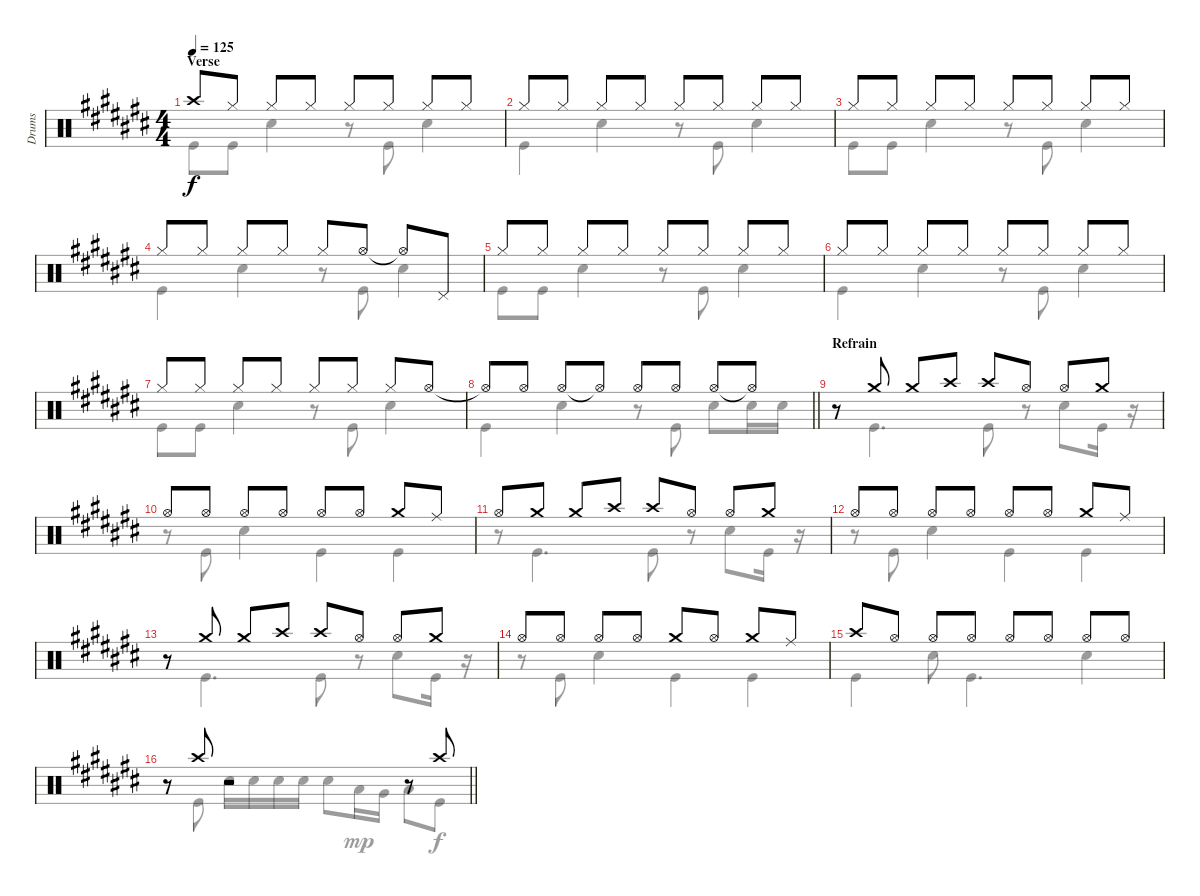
\track ("Drums" "Drums") {instrument percussion}
\staff {score}
\articulation defaults
\voice
\ts (4 4)
\section ("" "Verse")
\tempo 125
\clef neutral
\ks c# "Crash high (hit)".8{dy f} "Hi-Hat (closed)".8 "Hi-Hat (closed)".8 "Hi-Hat (closed)".8 "Hi-Hat (closed)".8 "Hi-Hat (closed)".8 "Hi-Hat (closed)".8 "Hi-Hat (closed)".8
|
"Hi-Hat (closed)".8 "Hi-Hat (closed)".8 "Hi-Hat (closed)".8 "Hi-Hat (closed)".8 "Hi-Hat (closed)".8 "Hi-Hat (closed)".8 "Hi-Hat (closed)".8 "Hi-Hat (closed)".8 |
"Hi-Hat (closed)".8 "Hi-Hat (closed)".8 "Hi-Hat (closed)".8 "Hi-Hat (closed)".8 "Hi-Hat (closed)".8 "Hi-Hat (closed)".8 "Hi-Hat (closed)".8 "Hi-Hat (closed)".8 |
"Hi-Hat (closed)".8 "Hi-Hat (closed)".8 "Hi-Hat (closed)".8 "Hi-Hat (closed)".8 "Hi-Hat (closed)".8 "Hi-Hat (open)".8 "Hi-Hat (open)"{t}.8 "Pedal Hi-Hat (hit)".8 |
"Hi-Hat (closed)".8 "Hi-Hat (closed)".8 "Hi-Hat (closed)".8 "Hi-Hat (closed)".8 "Hi-Hat (closed)".8 "Hi-Hat (closed)".8 "Hi-Hat (closed)".8 "Hi-Hat (closed)".8 |
"Hi-Hat (closed)".8 "Hi-Hat (closed)".8 "Hi-Hat (closed)".8 "Hi-Hat (closed)".8 "Hi-Hat (closed)".8 "Hi-Hat (closed)".8 "Hi-Hat (closed)".8 "Hi-Hat (closed)".8 |
"Hi-Hat (closed)".8 "Hi-Hat (closed)".8 "Hi-Hat (closed)".8 "Hi-Hat (closed)".8 "Hi-Hat (closed)".8 "Hi-Hat (closed)".8 "Hi-Hat (closed)".8 "Hi-Hat (open)".8 |
\barLineRight lightlight "Hi-Hat (open)"{t}.8 "Hi-Hat (open)".8 "Hi-Hat (open)".8 "Hi-Hat (open)"{t}.8 "Hi-Hat (open)".8 "Hi-Hat (open)".8 "Hi-Hat (open)".8 "Hi-Hat (open)"{t}.8
|
\section ("" "Refrain")
r.8 "Crash medium (hit)".8 "Crash medium (hit)".8 "Crash high (hit)".8 "Crash high (hit)".8 "Hi-Hat (open)".8 "Hi-Hat (open)".8 "Crash medium (hit)".8 |
"Hi-Hat (open)".8 "Hi-Hat (open)".8 "Hi-Hat (open)".8 "Hi-Hat (open)".8 "Hi-Hat (open)".8 "Hi-Hat (open)".8 "Crash medium (hit)".8 "Ride (middle)".8 |
"Hi-Hat (open)".8 "Crash medium (hit)".8 "Crash medium (hit)".8 "Crash high (hit)".8 "Crash high (hit)".8 "Hi-Hat (open)".8 "Hi-Hat (open)".8 "Crash medium (hit)".8 |
"Hi-Hat (open)".8 "Hi-Hat (open)".8 "Hi-Hat (open)".8 "Hi-Hat (open)".8 "Hi-Hat (open)".8 "Hi-Hat (open)".8 "Crash medium (hit)".8 "Ride (middle)".8 |
r.8 "Crash medium (hit)".8 "Crash medium (hit)".8 "Crash high (hit)".8 "Crash high (hit)".8 "Hi-Hat (open)".8 "Hi-Hat (open)".8 "Crash medium (hit)".8 |
"Hi-Hat (open)".8 "Hi-Hat (open)".8 "Hi-Hat (open)".8 "Hi-Hat (open)".8 "Crash medium (hit)".8 "Hi-Hat (open)".8 "Crash medium (hit)".8 "Ride (middle)".8 |
"Crash high (hit)".8 "Hi-Hat (open)".8 "Hi-Hat (open)".8 "Hi-Hat (open)".8 "Hi-Hat (open)".8 "Hi-Hat (open)".8 "Hi-Hat (open)".8 "Hi-Hat (open)".8 |
\barLineRight lightlight
r.8 "Crash high (hit)".8 r.2 r.8 "Crash high (hit)".8
\voice
\clef neutral
\ottava regular
\simile none
\ks c# "Kick (hit)".8{dy f} "Kick (hit)".8 "Snare (hit) 2".4
r.8 "Kick (hit)".8 "Snare (hit) 2".4 |
"Kick (hit)".4 "Snare (hit) 2".4 r.8 "Kick (hit)".8 "Snare (hit) 2".4 |
"Kick (hit)".8 "Kick (hit)".8 "Snare (hit) 2".4 r.8 "Kick (hit)".8 "Snare (hit) 2".4 |
"Kick (hit)".4 "Snare (hit) 2".4 r.8 "Kick (hit)".8 "Snare (hit) 2".4 |
"Kick (hit)".8 "Kick (hit)".8 "Snare (hit) 2".4 r.8 "Kick (hit)".8 "Snare (hit) 2".4 |
"Kick (hit)".4 "Snare (hit) 2".4 r.8 "Kick (hit)".8 "Snare (hit) 2".4 |
"Kick (hit)".8 "Kick (hit)".8 "Snare (hit) 2".4 r.8 "Kick (hit)".8 "Snare (hit) 2".4 |
\barLineRight lightlight "Kick (hit)".4 "Snare (hit) 2".4
r.8 "Kick (hit)".8 "Snare (hit) 2".8 "Snare (hit) 2".16 "Snare (hit) 2".16 |
r.8 "Kick (hit)".4{d} "Kick (hit)".8 r.8 "Snare (hit) 2".8 "Kick (hit)".16 r.16 |
r.8 "Kick (hit)".8 "Snare (hit) 2".4 "Kick (hit)".4 "Kick (hit)".4 |
r.8 "Kick (hit)".4{d} "Kick (hit)".8 r.8 "Snare (hit) 2".8 "Kick (hit)".16 r.16 |
r.8 "Kick (hit)".8 "Snare (hit) 2".4 "Kick (hit)".4 "Kick (hit)".4 |
r.8 "Kick (hit)".4{d} "Kick (hit)".8 r.8 "Snare (hit) 2".8 "Kick (hit)".16 r.16 |
r.8 "Kick (hit)".8 "Snare (hit) 2".4 "Kick (hit)".4 "Kick (hit)".4 |
"Kick (hit)".4 "Snare (hit) 2".8 "Kick (hit)".4{d} "Snare (hit) 2".4 |
\barLineRight lightlight
r.8 "Kick (hit)".8 "Snare (hit) 2".16 "Snare (hit) 2".16 "Snare (hit) 2".16 "Snare (hit) 2".16 "Snare (hit) 2".8 "Low Tom (hit)".16{dy mp} "Very Low Tom (hit)".16 "Low Floor Tom (hit)".8 "Kick (hit)".8{dy f}
